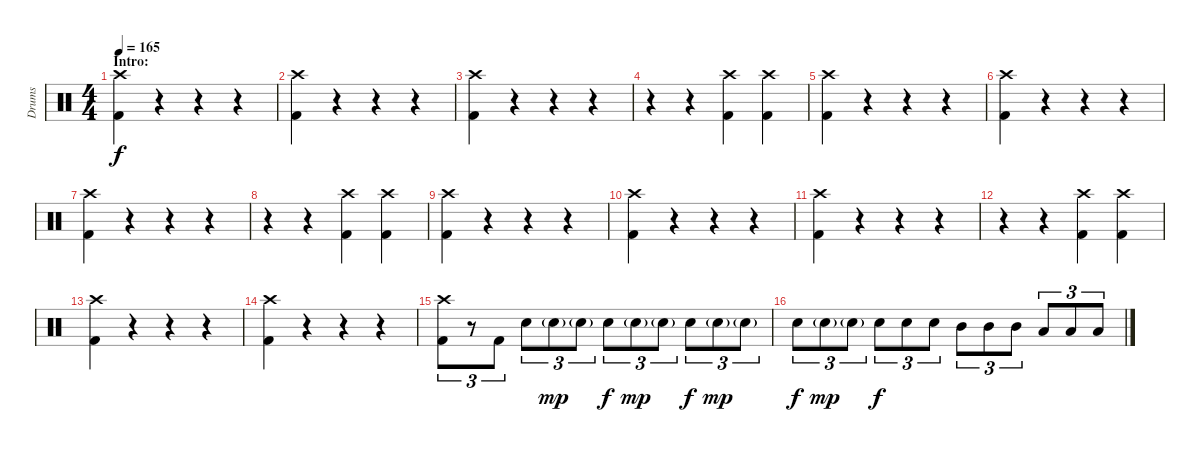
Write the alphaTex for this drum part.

\track ("Drums" "Drums") {instrument percussion}
\staff {score}
\articulation defaults
\ts (4 4)
\section ("" "Intro:")
\tempo 165
\clef neutral
\ks c
("Crash high (hit)" "Kick (hit) 2").4{dy f} r.4 r.4 r.4 |
("Crash high (hit)" "Kick (hit) 2").4 r.4 r.4 r.4 |
("Crash high (hit)" "Kick (hit) 2").4 r.4 r.4 r.4 |
r.4 r.4 ("Crash high (hit)" "Kick (hit) 2").4 ("Crash high (hit)" "Kick (hit) 2").4 |
("Crash high (hit)" "Kick (hit) 2").4 r.4 r.4 r.4 |
("Crash high (hit)" "Kick (hit) 2").4 r.4 r.4 r.4 |
("Crash high (hit)" "Kick (hit) 2").4 r.4 r.4 r.4 |
r.4 r.4 ("Crash high (hit)" "Kick (hit) 2").4 ("Crash high (hit)" "Kick (hit) 2").4 |
("Crash high (hit)" "Kick (hit) 2").4 r.4 r.4 r.4 |
("Crash high (hit)" "Kick (hit) 2").4 r.4 r.4 r.4 |
("Crash high (hit)" "Kick (hit) 2").4 r.4 r.4 r.4 |
r.4 r.4 ("Crash high (hit)" "Kick (hit) 2").4 ("Crash high (hit)" "Kick (hit) 2").4 |
("Crash high (hit)" "Kick (hit) 2").4 r.4 r.4 r.4 |
("Crash high (hit)" "Kick (hit) 2").4 r.4 r.4 r.4 |
("Crash high (hit)" "Kick (hit) 2").8{tu (3 2)} r.8{tu (3 2)} "Kick (hit) 2".8{tu (3 2)} "Electric Snare (hit)".8{tu (3 2)} "Electric Snare (hit)"{g}.8{tu (3 2) dy mp} "Electric Snare (hit)"{g}.8{tu (3 2)} "Electric Snare (hit)".8{tu (3 2) dy f} "Electric Snare (hit)"{g}.8{tu (3 2) dy mp} "Electric Snare (hit)"{g}.8{tu (3 2)} "Electric Snare (hit)".8{tu (3 2) dy f} "Electric Snare (hit)"{g}.8{tu (3 2) dy mp} "Electric Snare (hit)"{g}.8{tu (3 2)} |
"Electric Snare (hit)".8{tu (3 2) dy f} "Electric Snare (hit)"{g}.8{tu (3 2) dy mp} "Electric Snare (hit)"{g}.8{tu (3 2)} "Electric Snare (hit)".8{tu (3 2) dy f} "Electric Snare (hit)".8{tu (3 2)} "Electric Snare (hit)".8{tu (3 2)} "Mid Tom (hit)".8{tu (3 2)} "Mid Tom (hit)".8{tu (3 2)} "Mid Tom (hit)".8{tu (3 2)} "Low Tom (hit)".8{tu (3 2)} "Low Tom (hit)".8{tu (3 2)} "Low Tom (hit)".8{tu (3 2)}
